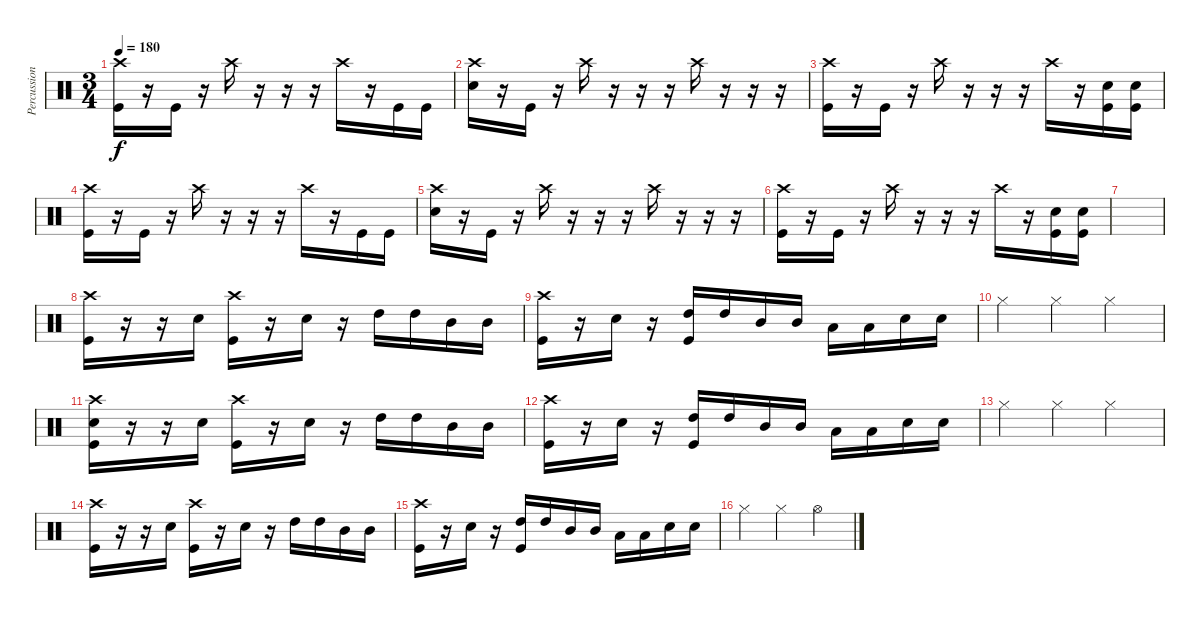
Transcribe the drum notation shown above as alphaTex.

\track ("Percussion" "Percussion") {instrument percussion}
\staff {score}
\articulation defaults
\ts (3 4)
\tempo 180
\clef neutral
\ks c
("Crash high (hit)" "Kick (hit)").16{dy f} r.16 "Kick (hit)".16 r.16 "Crash high (hit)".16 r.16 r.16 r.16 "Crash high (hit)".16 r.16 "Kick (hit)".16 "Kick (hit)".16 |
("Crash high (hit)" "Electric Snare (hit)").16 r.16 "Kick (hit)".16 r.16 "Crash high (hit)".16 r.16 r.16 r.16 "Crash high (hit)".16 r.16 r.16 r.16 |
("Crash high (hit)" "Kick (hit)").16 r.16 "Kick (hit)".16 r.16 "Crash high (hit)".16 r.16 r.16 r.16 "Crash high (hit)".16 r.16 ("Electric Snare (hit)" "Kick (hit)").16 ("Electric Snare (hit)" "Kick (hit)").16 |
("Crash high (hit)" "Kick (hit)").16 r.16 "Kick (hit)".16 r.16 "Crash high (hit)".16 r.16 r.16 r.16 "Crash high (hit)".16 r.16 "Kick (hit)".16 "Kick (hit)".16 |
("Crash high (hit)" "Electric Snare (hit)").16 r.16 "Kick (hit)".16 r.16 "Crash high (hit)".16 r.16 r.16 r.16 "Crash high (hit)".16 r.16 r.16 r.16 |
("Crash high (hit)" "Kick (hit)").16 r.16 "Kick (hit)".16 r.16 "Crash high (hit)".16 r.16 r.16 r.16 "Crash high (hit)".16 r.16 ("Electric Snare (hit)" "Kick (hit)").16 ("Electric Snare (hit)" "Kick (hit)").16 |
|
("Crash high (hit)" "Kick (hit)").16 r.16 r.16 "Electric Snare (hit)".16 ("Crash high (hit)" "Kick (hit)").16 r.16 "Electric Snare (hit)".16 r.16 "High Tom (hit)".16 "High Tom (hit)".16 "Mid Tom (hit)".16 "Mid Tom (hit)".16 |
("Crash high (hit)" "Kick (hit)").16 r.16 "Electric Snare (hit)".16 r.16 ("High Tom (hit)" "Kick (hit)").16 "High Tom (hit)".16 "Mid Tom (hit)".16 "Mid Tom (hit)".16 "Low Tom (hit)".16 "Low Tom (hit)".16 "Electric Snare (hit)".16 "Electric Snare (hit)".16 |
"Hi-Hat (closed)".4 "Hi-Hat (closed)".4 "Hi-Hat (closed)".4 |
("Crash high (hit)" "Snare (hit)" "Kick (hit)").16 r.16 r.16 "Electric Snare (hit)".16 ("Crash high (hit)" "Kick (hit)").16 r.16 "Electric Snare (hit)".16 r.16 "High Tom (hit)".16 "High Tom (hit)".16 "Mid Tom (hit)".16 "Mid Tom (hit)".16 |
("Crash high (hit)" "Kick (hit)").16 r.16 "Electric Snare (hit)".16 r.16 ("High Tom (hit)" "Kick (hit)").16 "High Tom (hit)".16 "Mid Tom (hit)".16 "Mid Tom (hit)".16 "Low Tom (hit)".16 "Low Tom (hit)".16 "Electric Snare (hit)".16 "Electric Snare (hit)".16 |
"Hi-Hat (closed)".4 "Hi-Hat (closed)".4 "Hi-Hat (closed)".4 |
("Crash high (hit)" "Kick (hit)").16 r.16 r.16 "Electric Snare (hit)".16 ("Crash high (hit)" "Kick (hit)").16 r.16 "Electric Snare (hit)".16 r.16 "High Tom (hit)".16 "High Tom (hit)".16 "Mid Tom (hit)".16 "Mid Tom (hit)".16 |
("Crash high (hit)" "Kick (hit)").16 r.16 "Electric Snare (hit)".16 r.16 ("High Tom (hit)" "Kick (hit)").16 "High Tom (hit)".16 "Mid Tom (hit)".16 "Mid Tom (hit)".16 "Low Tom (hit)".16 "Low Tom (hit)".16 "Electric Snare (hit)".16 "Electric Snare (hit)".16 |
"Hi-Hat (closed)".4 "Hi-Hat (closed)".4 "Hi-Hat (open)".4
